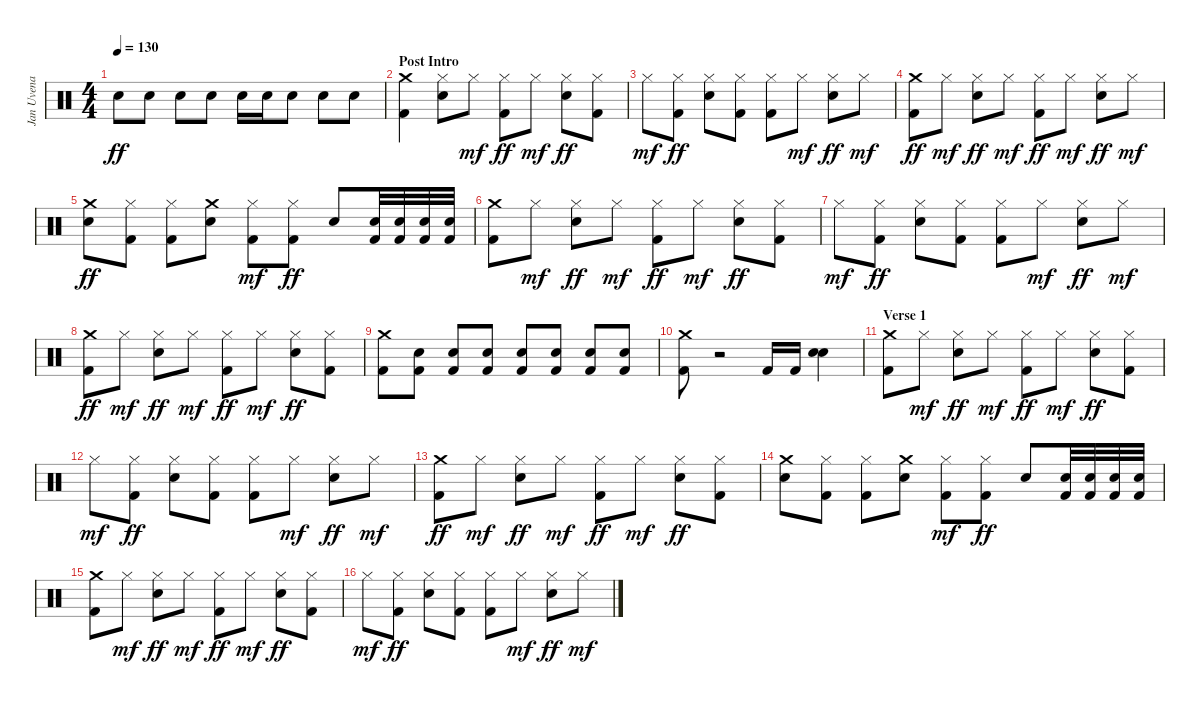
\track ("Jan Uvena" "Jan Uvena") {instrument percussion}
\staff {score}
\articulation defaults
\ts (4 4)
\tempo 130
\clef neutral
\ks c "Electric Snare (hit)".8{dy ff} "Snare (hit) 2".8 "Electric Snare (hit)".8 "Snare (hit) 2".8 "Electric Snare (hit)".16 "Snare (hit) 2".16 "Electric Snare (hit)".8 "Snare (hit) 2".8 "Electric Snare (hit)".8
|
\section ("" "Post Intro")
("Crash medium (hit)" "Kick (hit) 2").4 ("Hi-Hat (closed)" "Snare (hit) 2").8 "Hi-Hat (closed)".8{dy mf} ("Hi-Hat (closed)" "Kick (hit) 2").8{dy ff} "Hi-Hat (closed)".8{dy mf} ("Hi-Hat (closed)" "Snare (hit) 2").8{dy ff} ("Hi-Hat (closed)" "Kick (hit) 2").8 |
"Hi-Hat (closed)".8{dy mf} ("Hi-Hat (closed)" "Kick (hit) 2").8{dy ff} ("Hi-Hat (closed)" "Snare (hit) 2").8 ("Hi-Hat (closed)" "Kick (hit) 2").8 ("Hi-Hat (closed)" "Kick (hit) 2").8 "Hi-Hat (closed)".8{dy mf} ("Hi-Hat (closed)" "Snare (hit) 2").8{dy ff} "Hi-Hat (closed)".8{dy mf} |
("Crash medium (hit)" "Kick (hit) 2").8{dy ff} "Hi-Hat (closed)".8{dy mf} ("Hi-Hat (closed)" "Snare (hit) 2").8{dy ff} "Hi-Hat (closed)".8{dy mf} ("Hi-Hat (closed)" "Kick (hit) 2").8{dy ff} "Hi-Hat (closed)".8{dy mf} ("Hi-Hat (closed)" "Snare (hit) 2").8{dy ff} "Hi-Hat (closed)".8{dy mf} |
("Crash medium (hit)" "Snare (hit) 2").8{dy ff} ("Hi-Hat (closed)" "Kick (hit) 2").8 ("Hi-Hat (closed)" "Kick (hit) 2").8 ("Crash medium (hit)" "Snare (hit) 2").8 ("Hi-Hat (closed)" "Kick (hit) 2").8{dy mf} ("Hi-Hat (closed)" "Kick (hit) 2").8{dy ff} "Snare (hit) 2".8 ("Snare (hit) 2" "Kick (hit) 2").32 ("Snare (hit) 2" "Kick (hit) 2").32 ("Snare (hit) 2" "Kick (hit) 2").32 ("Snare (hit) 2" "Kick (hit) 2").32 |
("Crash medium (hit)" "Kick (hit) 2").8 "Hi-Hat (closed)".8{dy mf} ("Hi-Hat (closed)" "Snare (hit) 2").8{dy ff} "Hi-Hat (closed)".8{dy mf} ("Hi-Hat (closed)" "Kick (hit) 2").8{dy ff} "Hi-Hat (closed)".8{dy mf} ("Hi-Hat (closed)" "Snare (hit) 2").8{dy ff} ("Hi-Hat (closed)" "Kick (hit) 2").8 |
"Hi-Hat (closed)".8{dy mf} ("Hi-Hat (closed)" "Kick (hit) 2").8{dy ff} ("Hi-Hat (closed)" "Snare (hit) 2").8 ("Hi-Hat (closed)" "Kick (hit) 2").8 ("Hi-Hat (closed)" "Kick (hit) 2").8 "Hi-Hat (closed)".8{dy mf} ("Hi-Hat (closed)" "Snare (hit) 2").8{dy ff} "Hi-Hat (closed)".8{dy mf} |
("Crash medium (hit)" "Kick (hit) 2").8{dy ff} "Hi-Hat (closed)".8{dy mf} ("Hi-Hat (closed)" "Snare (hit) 2").8{dy ff} "Hi-Hat (closed)".8{dy mf} ("Hi-Hat (closed)" "Kick (hit) 2").8{dy ff} "Hi-Hat (closed)".8{dy mf} ("Hi-Hat (closed)" "Snare (hit) 2").8{dy ff} ("Hi-Hat (closed)" "Kick (hit) 2").8 |
("Crash medium (hit)" "Kick (hit) 2").8 ("Snare (hit) 2" "Kick (hit) 2").8 ("Snare (hit) 2" "Kick (hit) 2").8 ("Snare (hit) 2" "Kick (hit) 2").8 ("Electric Snare (hit)" "Kick (hit) 2").8 ("Snare (hit) 2" "Kick (hit) 2").8 ("Snare (hit) 2" "Kick (hit) 2").8 ("Snare (hit) 2" "Kick (hit) 2").8 |
("Crash medium (hit)" "Kick (hit) 2").8 r.2 "Kick (hit) 2".16 "Kick (hit) 2".16 ("Electric Snare (hit)" "Snare (hit) 2").4 |
\section ("" "Verse 1")
("Crash medium (hit)" "Kick (hit) 2").8 "Hi-Hat (closed)".8{dy mf} ("Hi-Hat (closed)" "Snare (hit) 2").8{dy ff} "Hi-Hat (closed)".8{dy mf} ("Hi-Hat (closed)" "Kick (hit) 2").8{dy ff} "Hi-Hat (closed)".8{dy mf} ("Hi-Hat (closed)" "Snare (hit) 2").8{dy ff} ("Hi-Hat (closed)" "Kick (hit) 2").8 |
"Hi-Hat (closed)".8{dy mf} ("Hi-Hat (closed)" "Kick (hit) 2").8{dy ff} ("Hi-Hat (closed)" "Snare (hit) 2").8 ("Hi-Hat (closed)" "Kick (hit) 2").8 ("Hi-Hat (closed)" "Kick (hit) 2").8 "Hi-Hat (closed)".8{dy mf} ("Hi-Hat (closed)" "Snare (hit) 2").8{dy ff} "Hi-Hat (closed)".8{dy mf} |
("Crash medium (hit)" "Kick (hit) 2").8{dy ff} "Hi-Hat (closed)".8{dy mf} ("Hi-Hat (closed)" "Snare (hit) 2").8{dy ff} "Hi-Hat (closed)".8{dy mf} ("Hi-Hat (closed)" "Kick (hit) 2").8{dy ff} "Hi-Hat (closed)".8{dy mf} ("Hi-Hat (closed)" "Snare (hit) 2").8{dy ff} ("Hi-Hat (closed)" "Kick (hit) 2").8 |
("Crash medium (hit)" "Snare (hit) 2").8 ("Hi-Hat (closed)" "Kick (hit) 2").8 ("Hi-Hat (closed)" "Kick (hit) 2").8 ("Crash medium (hit)" "Snare (hit) 2").8 ("Hi-Hat (closed)" "Kick (hit) 2").8{dy mf} ("Hi-Hat (closed)" "Kick (hit) 2").8{dy ff} "Snare (hit) 2".8 ("Snare (hit) 2" "Kick (hit) 2").32 ("Snare (hit) 2" "Kick (hit) 2").32 ("Snare (hit) 2" "Kick (hit) 2").32 ("Snare (hit) 2" "Kick (hit) 2").32 |
("Crash medium (hit)" "Kick (hit) 2").8 "Hi-Hat (closed)".8{dy mf} ("Hi-Hat (closed)" "Snare (hit) 2").8{dy ff} "Hi-Hat (closed)".8{dy mf} ("Hi-Hat (closed)" "Kick (hit) 2").8{dy ff} "Hi-Hat (closed)".8{dy mf} ("Hi-Hat (closed)" "Snare (hit) 2").8{dy ff} ("Hi-Hat (closed)" "Kick (hit) 2").8 |
"Hi-Hat (closed)".8{dy mf} ("Hi-Hat (closed)" "Kick (hit) 2").8{dy ff} ("Hi-Hat (closed)" "Snare (hit) 2").8 ("Hi-Hat (closed)" "Kick (hit) 2").8 ("Hi-Hat (closed)" "Kick (hit) 2").8 "Hi-Hat (closed)".8{dy mf} ("Hi-Hat (closed)" "Snare (hit) 2").8{dy ff} "Hi-Hat (closed)".8{dy mf}
